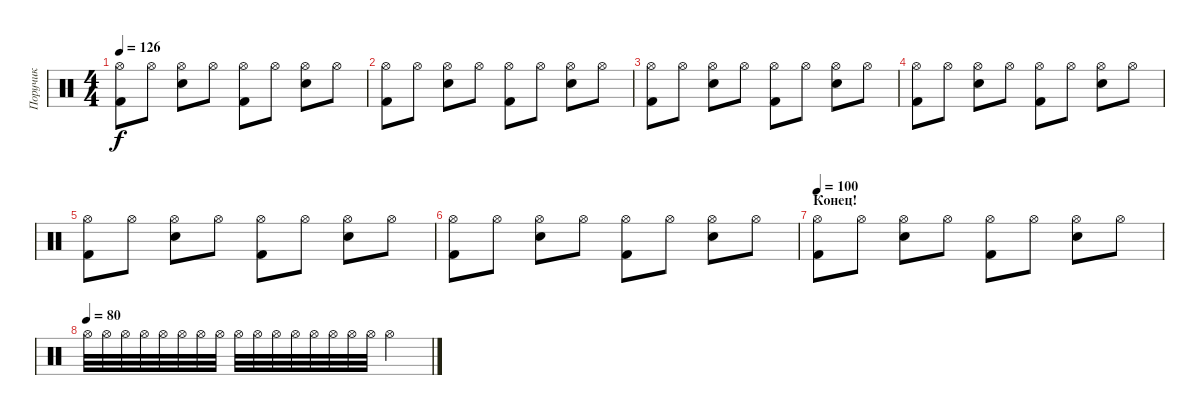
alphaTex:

\track ("Поручик" "Поручик") {instrument percussion}
\staff {score}
\articulation defaults
\ts (4 4)
\tempo 126
\clef neutral
\ks c
("Hi-Hat (open)" "Kick (hit) 2").8{dy f} "Hi-Hat (open)".8 ("Hi-Hat (open)" "Snare (hit) 2").8 "Hi-Hat (open)".8 ("Hi-Hat (open)" "Kick (hit) 2").8 "Hi-Hat (open)".8 ("Hi-Hat (open)" "Snare (hit) 2").8 "Hi-Hat (open)".8 |
("Hi-Hat (open)" "Kick (hit) 2").8 "Hi-Hat (open)".8 ("Hi-Hat (open)" "Snare (hit) 2").8 "Hi-Hat (open)".8 ("Hi-Hat (open)" "Kick (hit) 2").8 "Hi-Hat (open)".8 ("Hi-Hat (open)" "Snare (hit) 2").8 "Hi-Hat (open)".8 |
("Hi-Hat (open)" "Kick (hit) 2").8 "Hi-Hat (open)".8 ("Hi-Hat (open)" "Snare (hit) 2").8 "Hi-Hat (open)".8 ("Hi-Hat (open)" "Kick (hit) 2").8 "Hi-Hat (open)".8 ("Hi-Hat (open)" "Snare (hit) 2").8 "Hi-Hat (open)".8 |
("Hi-Hat (open)" "Kick (hit) 2").8 "Hi-Hat (open)".8 ("Hi-Hat (open)" "Snare (hit) 2").8 "Hi-Hat (open)".8 ("Hi-Hat (open)" "Kick (hit) 2").8 "Hi-Hat (open)".8 ("Hi-Hat (open)" "Snare (hit) 2").8 "Hi-Hat (open)".8 |
("Hi-Hat (open)" "Kick (hit) 2").8 "Hi-Hat (open)".8 ("Hi-Hat (open)" "Snare (hit) 2").8 "Hi-Hat (open)".8 ("Hi-Hat (open)" "Kick (hit) 2").8 "Hi-Hat (open)".8 ("Hi-Hat (open)" "Snare (hit) 2").8 "Hi-Hat (open)".8 |
("Hi-Hat (open)" "Kick (hit) 2").8 "Hi-Hat (open)".8 ("Hi-Hat (open)" "Snare (hit) 2").8 "Hi-Hat (open)".8 ("Hi-Hat (open)" "Kick (hit) 2").8 "Hi-Hat (open)".8 ("Hi-Hat (open)" "Snare (hit) 2").8 "Hi-Hat (open)".8 |
\section ("" "Конец!")
\tempo 100
("Hi-Hat (open)" "Kick (hit) 2").8 "Hi-Hat (open)".8 ("Hi-Hat (open)" "Snare (hit) 2").8 "Hi-Hat (open)".8 ("Hi-Hat (open)" "Kick (hit) 2").8 "Hi-Hat (open)".8 ("Hi-Hat (open)" "Snare (hit) 2").8 "Hi-Hat (open)".8 |
\tempo (80)
"Hi-Hat (open)".32 "Hi-Hat (open)".32 "Hi-Hat (open)".32 "Hi-Hat (open)".32 "Hi-Hat (open)".32 "Hi-Hat (open)".32 "Hi-Hat (open)".32 "Hi-Hat (open)".32 "Hi-Hat (open)".32 "Hi-Hat (open)".32 "Hi-Hat (open)".32 "Hi-Hat (open)".32 "Hi-Hat (open)".32 "Hi-Hat (open)".32 "Hi-Hat (open)".32 "Hi-Hat (open)".32 "Hi-Hat (open)".2
